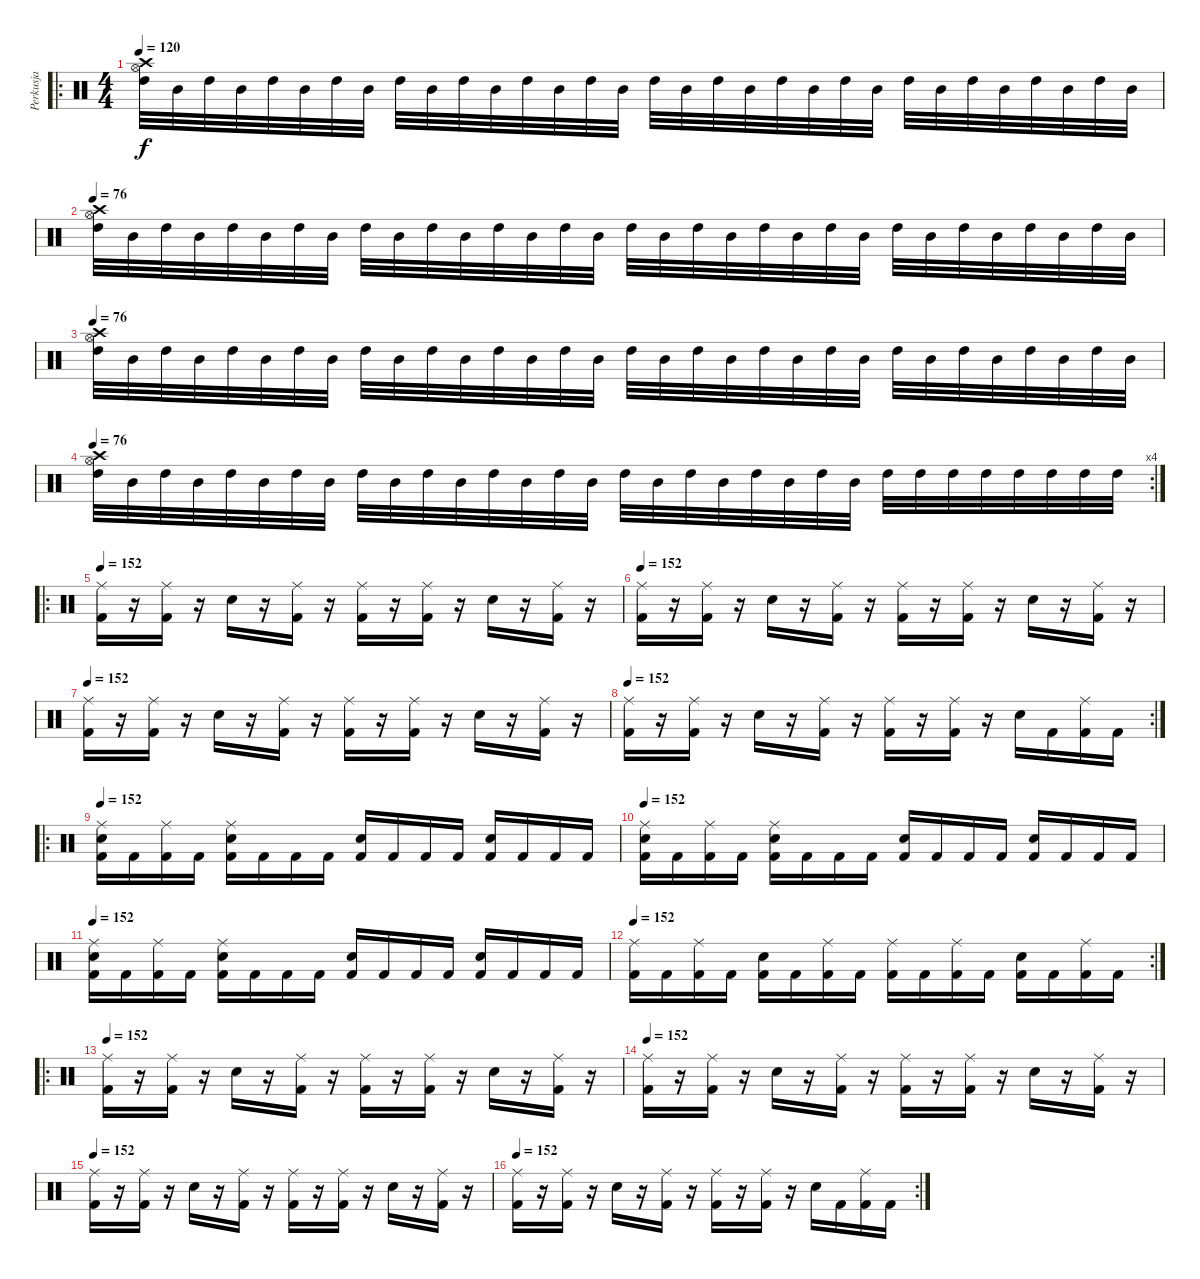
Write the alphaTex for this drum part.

\track ("Perkusja" "Perkusja") {instrument percussion}
\staff {score}
\articulation defaults
\ro
\ts (4 4)
\tempo 120
\tempo 76
\tempo 120
\clef neutral
\ks c
("Hi-Hat (open)" "Crash high (hit)" "High Tom (hit)").32{dy f} "Mid Tom (hit)".32 "High Tom (hit)".32 "Mid Tom (hit)".32 "High Tom (hit)".32 "Mid Tom (hit)".32 "High Tom (hit)".32 "Mid Tom (hit)".32 "High Tom (hit)".32 "Mid Tom (hit)".32 "High Tom (hit)".32 "Mid Tom (hit)".32 "High Tom (hit)".32 "Mid Tom (hit)".32 "High Tom (hit)".32 "Mid Tom (hit)".32 "High Tom (hit)".32 "Mid Tom (hit)".32 "High Tom (hit)".32 "Mid Tom (hit)".32 "High Tom (hit)".32 "Mid Tom (hit)".32 "High Tom (hit)".32 "Mid Tom (hit)".32 "High Tom (hit)".32 "Mid Tom (hit)".32 "High Tom (hit)".32 "Mid Tom (hit)".32 "High Tom (hit)".32 "Mid Tom (hit)".32 "High Tom (hit)".32 "Mid Tom (hit)".32 |
\tempo 76
("Hi-Hat (open)" "Crash high (hit)" "High Tom (hit)").32 "Mid Tom (hit)".32 "High Tom (hit)".32 "Mid Tom (hit)".32 "High Tom (hit)".32 "Mid Tom (hit)".32 "High Tom (hit)".32 "Mid Tom (hit)".32 "High Tom (hit)".32 "Mid Tom (hit)".32 "High Tom (hit)".32 "Mid Tom (hit)".32 "High Tom (hit)".32 "Mid Tom (hit)".32 "High Tom (hit)".32 "Mid Tom (hit)".32 "High Tom (hit)".32 "Mid Tom (hit)".32 "High Tom (hit)".32 "Mid Tom (hit)".32 "High Tom (hit)".32 "Mid Tom (hit)".32 "High Tom (hit)".32 "Mid Tom (hit)".32 "High Tom (hit)".32 "Mid Tom (hit)".32 "High Tom (hit)".32 "Mid Tom (hit)".32 "High Tom (hit)".32 "Mid Tom (hit)".32 "High Tom (hit)".32 "Mid Tom (hit)".32 |
\tempo 76
("Hi-Hat (open)" "Crash high (hit)" "High Tom (hit)").32 "Mid Tom (hit)".32 "High Tom (hit)".32 "Mid Tom (hit)".32 "High Tom (hit)".32 "Mid Tom (hit)".32 "High Tom (hit)".32 "Mid Tom (hit)".32 "High Tom (hit)".32 "Mid Tom (hit)".32 "High Tom (hit)".32 "Mid Tom (hit)".32 "High Tom (hit)".32 "Mid Tom (hit)".32 "High Tom (hit)".32 "Mid Tom (hit)".32 "High Tom (hit)".32 "Mid Tom (hit)".32 "High Tom (hit)".32 "Mid Tom (hit)".32 "High Tom (hit)".32 "Mid Tom (hit)".32 "High Tom (hit)".32 "Mid Tom (hit)".32 "High Tom (hit)".32 "Mid Tom (hit)".32 "High Tom (hit)".32 "Mid Tom (hit)".32 "High Tom (hit)".32 "Mid Tom (hit)".32 "High Tom (hit)".32 "Mid Tom (hit)".32 |
\rc 4
\tempo 76
("Hi-Hat (open)" "Crash high (hit)" "High Tom (hit)").32 "Mid Tom (hit)".32 "High Tom (hit)".32 "Mid Tom (hit)".32 "High Tom (hit)".32 "Mid Tom (hit)".32 "High Tom (hit)".32 "Mid Tom (hit)".32 "High Tom (hit)".32 "Mid Tom (hit)".32 "High Tom (hit)".32 "Mid Tom (hit)".32 "High Tom (hit)".32 "Mid Tom (hit)".32 "High Tom (hit)".32 "Mid Tom (hit)".32 "High Tom (hit)".32 "Mid Tom (hit)".32 "High Tom (hit)".32 "Mid Tom (hit)".32 "High Tom (hit)".32 "Mid Tom (hit)".32 "High Tom (hit)".32 "Mid Tom (hit)".32 "High Tom (hit)".32 "High Tom (hit)".32 "High Tom (hit)".32 "High Tom (hit)".32 "High Tom (hit)".32 "High Tom (hit)".32 "High Tom (hit)".32 "High Tom (hit)".32 |
\ro
\tempo 152
("Ride (middle)" "Kick (hit) 2").16 r.16 ("Ride (middle)" "Kick (hit) 2").16 r.16 "Snare (hit) 2".16 r.16 ("Ride (middle)" "Kick (hit) 2").16 r.16 ("Ride (middle)" "Kick (hit) 2").16 r.16 ("Ride (middle)" "Kick (hit) 2").16 r.16 "Snare (hit) 2".16 r.16 ("Ride (middle)" "Kick (hit) 2").16 r.16 |
\tempo 152
("Ride (middle)" "Kick (hit) 2").16 r.16 ("Ride (middle)" "Kick (hit) 2").16 r.16 "Snare (hit) 2".16 r.16 ("Ride (middle)" "Kick (hit) 2").16 r.16 ("Ride (middle)" "Kick (hit) 2").16 r.16 ("Ride (middle)" "Kick (hit) 2").16 r.16 "Snare (hit) 2".16 r.16 ("Ride (middle)" "Kick (hit) 2").16 r.16 |
\tempo 152
("Ride (middle)" "Kick (hit) 2").16 r.16 ("Ride (middle)" "Kick (hit) 2").16 r.16 "Snare (hit) 2".16 r.16 ("Ride (middle)" "Kick (hit) 2").16 r.16 ("Ride (middle)" "Kick (hit) 2").16 r.16 ("Ride (middle)" "Kick (hit) 2").16 r.16 "Snare (hit) 2".16 r.16 ("Ride (middle)" "Kick (hit) 2").16 r.16 |
\rc 2
\tempo 152
("Ride (middle)" "Kick (hit) 2").16 r.16 ("Ride (middle)" "Kick (hit) 2").16 r.16 "Snare (hit) 2".16 r.16 ("Ride (middle)" "Kick (hit) 2").16 r.16 ("Ride (middle)" "Kick (hit) 2").16 r.16 ("Ride (middle)" "Kick (hit) 2").16 r.16 "Snare (hit) 2".16 "Kick (hit) 2".16 ("Ride (middle)" "Kick (hit) 2").16 "Kick (hit) 2".16 |
\ro
\tempo 152
("Ride (middle)" "Kick (hit) 2" "Snare (hit) 2").16 "Kick (hit) 2".16 ("Ride (middle)" "Kick (hit) 2").16 "Kick (hit) 2".16 ("Ride (middle)" "Kick (hit) 2" "Snare (hit) 2").16 "Kick (hit) 2".16 "Kick (hit) 2".16 "Kick (hit) 2".16 ("Kick (hit) 2" "Snare (hit) 2").16 "Kick (hit) 2".16 "Kick (hit) 2".16 "Kick (hit) 2".16 ("Kick (hit) 2" "Snare (hit) 2").16 "Kick (hit) 2".16 "Kick (hit) 2".16 "Kick (hit) 2".16 |
\tempo 152
("Ride (middle)" "Kick (hit) 2" "Snare (hit) 2").16 "Kick (hit) 2".16 ("Ride (middle)" "Kick (hit) 2").16 "Kick (hit) 2".16 ("Ride (middle)" "Kick (hit) 2" "Snare (hit) 2").16 "Kick (hit) 2".16 "Kick (hit) 2".16 "Kick (hit) 2".16 ("Kick (hit) 2" "Snare (hit) 2").16 "Kick (hit) 2".16 "Kick (hit) 2".16 "Kick (hit) 2".16 ("Kick (hit) 2" "Snare (hit) 2").16 "Kick (hit) 2".16 "Kick (hit) 2".16 "Kick (hit) 2".16 |
\tempo 152
("Ride (middle)" "Kick (hit) 2" "Snare (hit) 2").16 "Kick (hit) 2".16 ("Ride (middle)" "Kick (hit) 2").16 "Kick (hit) 2".16 ("Ride (middle)" "Kick (hit) 2" "Snare (hit) 2").16 "Kick (hit) 2".16 "Kick (hit) 2".16 "Kick (hit) 2".16 ("Kick (hit) 2" "Snare (hit) 2").16 "Kick (hit) 2".16 "Kick (hit) 2".16 "Kick (hit) 2".16 ("Kick (hit) 2" "Snare (hit) 2").16 "Kick (hit) 2".16 "Kick (hit) 2".16 "Kick (hit) 2".16 |
\rc 2
\tempo 152
("Ride (middle)" "Kick (hit) 2").16 "Kick (hit) 2".16 ("Ride (middle)" "Kick (hit) 2").16 "Kick (hit) 2".16 ("Snare (hit) 2" "Kick (hit) 2").16 "Kick (hit) 2".16 ("Ride (middle)" "Kick (hit) 2").16 "Kick (hit) 2".16 ("Ride (middle)" "Kick (hit) 2").16 "Kick (hit) 2".16 ("Ride (middle)" "Kick (hit) 2").16 "Kick (hit) 2".16 ("Snare (hit) 2" "Kick (hit) 2").16 "Kick (hit) 2".16 ("Ride (middle)" "Kick (hit) 2").16 "Kick (hit) 2".16 |
\ro
\tempo 152
("Ride (middle)" "Kick (hit) 2").16 r.16 ("Ride (middle)" "Kick (hit) 2").16 r.16 "Snare (hit) 2".16 r.16 ("Ride (middle)" "Kick (hit) 2").16 r.16 ("Ride (middle)" "Kick (hit) 2").16 r.16 ("Ride (middle)" "Kick (hit) 2").16 r.16 "Snare (hit) 2".16 r.16 ("Ride (middle)" "Kick (hit) 2").16 r.16 |
\tempo 152
("Ride (middle)" "Kick (hit) 2").16 r.16 ("Ride (middle)" "Kick (hit) 2").16 r.16 "Snare (hit) 2".16 r.16 ("Ride (middle)" "Kick (hit) 2").16 r.16 ("Ride (middle)" "Kick (hit) 2").16 r.16 ("Ride (middle)" "Kick (hit) 2").16 r.16 "Snare (hit) 2".16 r.16 ("Ride (middle)" "Kick (hit) 2").16 r.16 |
\tempo 152
("Ride (middle)" "Kick (hit) 2").16 r.16 ("Ride (middle)" "Kick (hit) 2").16 r.16 "Snare (hit) 2".16 r.16 ("Ride (middle)" "Kick (hit) 2").16 r.16 ("Ride (middle)" "Kick (hit) 2").16 r.16 ("Ride (middle)" "Kick (hit) 2").16 r.16 "Snare (hit) 2".16 r.16 ("Ride (middle)" "Kick (hit) 2").16 r.16 |
\rc 2
\tempo 152
("Ride (middle)" "Kick (hit) 2").16 r.16 ("Ride (middle)" "Kick (hit) 2").16 r.16 "Snare (hit) 2".16 r.16 ("Ride (middle)" "Kick (hit) 2").16 r.16 ("Ride (middle)" "Kick (hit) 2").16 r.16 ("Ride (middle)" "Kick (hit) 2").16 r.16 "Snare (hit) 2".16 "Kick (hit) 2".16 ("Ride (middle)" "Kick (hit) 2").16 "Kick (hit) 2".16
